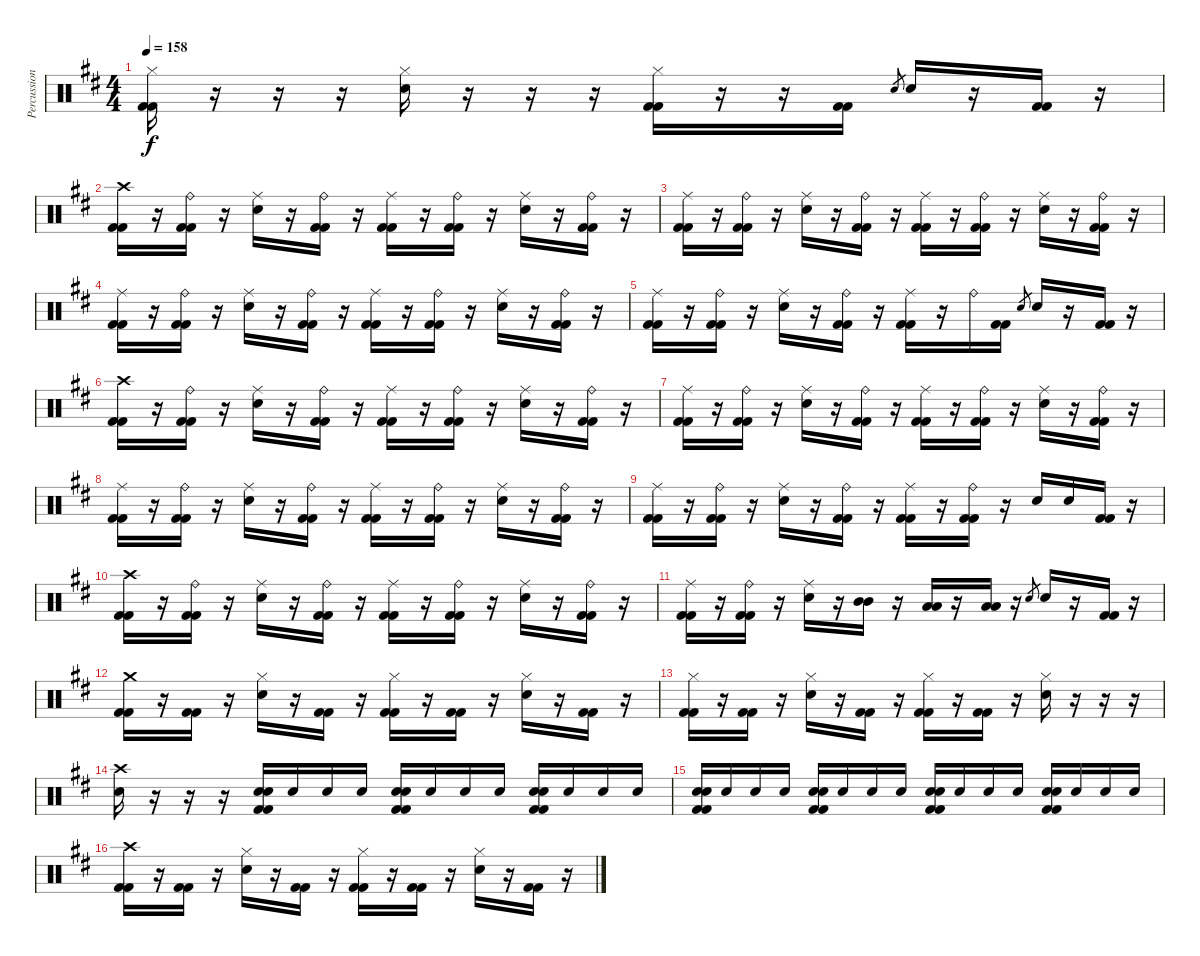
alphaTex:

\track ("Percussion" "Percussion") {instrument percussion}
\staff {score}
\articulation defaults
\ts (4 4)
\tempo 158
\clef neutral
\ks d
("Hi-Hat (closed)" "Kick (hit) 2" "Kick (hit) 2").16{dy f} r.16 r.16 r.16 ("Hi-Hat (closed)" "Electric Snare (hit)").16 r.16 r.16 r.16 ("Hi-Hat (closed)" "Kick (hit) 2" "Kick (hit) 2").16 r.16 r.16 ("Kick (hit) 2" "Kick (hit) 2").16 "Electric Snare (hit)".8{gr} "Electric Snare (hit)".16 r.16 ("Kick (hit) 2" "Kick (hit) 2").16 r.16 |
("Crash high (hit)" "Kick (hit) 2" "Kick (hit) 2").16 r.16 ("Ride (bell)" "Kick (hit) 2" "Kick (hit) 2").16 r.16 ("Ride (middle)" "Electric Snare (hit)").16 r.16 ("Ride (bell)" "Kick (hit) 2" "Kick (hit) 2").16 r.16 ("Ride (middle)" "Kick (hit) 2" "Kick (hit) 2").16 r.16 ("Ride (bell)" "Kick (hit) 2" "Kick (hit) 2").16 r.16 ("Ride (middle)" "Electric Snare (hit)").16 r.16 ("Ride (bell)" "Kick (hit) 2" "Kick (hit) 2").16 r.16 |
("Ride (middle)" "Kick (hit) 2" "Kick (hit) 2").16 r.16 ("Ride (bell)" "Kick (hit) 2" "Kick (hit) 2").16 r.16 ("Ride (middle)" "Electric Snare (hit)").16 r.16 ("Ride (bell)" "Kick (hit) 2" "Kick (hit) 2").16 r.16 ("Ride (middle)" "Kick (hit) 2" "Kick (hit) 2").16 r.16 ("Ride (bell)" "Kick (hit) 2" "Kick (hit) 2").16 r.16 ("Ride (middle)" "Electric Snare (hit)").16 r.16 ("Ride (bell)" "Kick (hit) 2" "Kick (hit) 2").16 r.16 |
("Ride (middle)" "Kick (hit) 2" "Kick (hit) 2").16 r.16 ("Ride (bell)" "Kick (hit) 2" "Kick (hit) 2").16 r.16 ("Ride (middle)" "Electric Snare (hit)").16 r.16 ("Ride (bell)" "Kick (hit) 2" "Kick (hit) 2").16 r.16 ("Ride (middle)" "Kick (hit) 2" "Kick (hit) 2").16 r.16 ("Ride (bell)" "Kick (hit) 2" "Kick (hit) 2").16 r.16 ("Ride (middle)" "Electric Snare (hit)").16 r.16 ("Ride (bell)" "Kick (hit) 2" "Kick (hit) 2").16 r.16 |
("Ride (middle)" "Kick (hit) 2" "Kick (hit) 2").16 r.16 ("Ride (bell)" "Kick (hit) 2" "Kick (hit) 2").16 r.16 ("Ride (middle)" "Electric Snare (hit)").16 r.16 ("Ride (bell)" "Kick (hit) 2" "Kick (hit) 2").16 r.16 ("Ride (middle)" "Kick (hit) 2" "Kick (hit) 2").16 r.16 "Ride (bell)".16 ("Kick (hit) 2" "Kick (hit) 2").16 "Electric Snare (hit)".8{gr} "Electric Snare (hit)".16 r.16 ("Kick (hit) 2" "Kick (hit) 2").16 r.16 |
("Crash high (hit)" "Kick (hit) 2" "Kick (hit) 2").16 r.16 ("Ride (bell)" "Kick (hit) 2" "Kick (hit) 2").16 r.16 ("Ride (middle)" "Electric Snare (hit)").16 r.16 ("Ride (bell)" "Kick (hit) 2" "Kick (hit) 2").16 r.16 ("Ride (middle)" "Kick (hit) 2" "Kick (hit) 2").16 r.16 ("Ride (bell)" "Kick (hit) 2" "Kick (hit) 2").16 r.16 ("Ride (middle)" "Electric Snare (hit)").16 r.16 ("Ride (bell)" "Kick (hit) 2" "Kick (hit) 2").16 r.16 |
("Ride (middle)" "Kick (hit) 2" "Kick (hit) 2").16 r.16 ("Ride (bell)" "Kick (hit) 2" "Kick (hit) 2").16 r.16 ("Ride (middle)" "Electric Snare (hit)").16 r.16 ("Ride (bell)" "Kick (hit) 2" "Kick (hit) 2").16 r.16 ("Ride (middle)" "Kick (hit) 2" "Kick (hit) 2").16 r.16 ("Ride (bell)" "Kick (hit) 2" "Kick (hit) 2").16 r.16 ("Ride (middle)" "Electric Snare (hit)").16 r.16 ("Ride (bell)" "Kick (hit) 2" "Kick (hit) 2").16 r.16 |
("Ride (middle)" "Kick (hit) 2" "Kick (hit) 2").16 r.16 ("Ride (bell)" "Kick (hit) 2" "Kick (hit) 2").16 r.16 ("Ride (middle)" "Electric Snare (hit)").16 r.16 ("Ride (bell)" "Kick (hit) 2" "Kick (hit) 2").16 r.16 ("Ride (middle)" "Kick (hit) 2" "Kick (hit) 2").16 r.16 ("Ride (bell)" "Kick (hit) 2" "Kick (hit) 2").16 r.16 ("Ride (middle)" "Electric Snare (hit)").16 r.16 ("Ride (bell)" "Kick (hit) 2" "Kick (hit) 2").16 r.16 |
("Ride (middle)" "Kick (hit) 2" "Kick (hit) 2").16 r.16 ("Ride (bell)" "Kick (hit) 2" "Kick (hit) 2").16 r.16 ("Ride (middle)" "Electric Snare (hit)").16 r.16 ("Ride (bell)" "Kick (hit) 2" "Kick (hit) 2").16 r.16 ("Ride (middle)" "Kick (hit) 2" "Kick (hit) 2").16 r.16 ("Ride (bell)" "Kick (hit) 2" "Kick (hit) 2").16 r.16 "Electric Snare (hit)".16 "Electric Snare (hit)".16 ("Kick (hit) 2" "Kick (hit) 2").16 r.16 |
("Crash high (hit)" "Kick (hit) 2" "Kick (hit) 2").16 r.16 ("Ride (bell)" "Kick (hit) 2" "Kick (hit) 2").16 r.16 ("Ride (middle)" "Electric Snare (hit)").16 r.16 ("Ride (bell)" "Kick (hit) 2" "Kick (hit) 2").16 r.16 ("Ride (middle)" "Kick (hit) 2" "Kick (hit) 2").16 r.16 ("Ride (bell)" "Kick (hit) 2" "Kick (hit) 2").16 r.16 ("Ride (middle)" "Electric Snare (hit)").16 r.16 ("Ride (bell)" "Kick (hit) 2" "Kick (hit) 2").16 r.16 |
("Ride (middle)" "Kick (hit) 2" "Kick (hit) 2").16 r.16 ("Ride (bell)" "Kick (hit) 2" "Kick (hit) 2").16 r.16 ("Ride (middle)" "Electric Snare (hit)").16 r.16 ("Mid Tom (hit)" "Mid Tom (hit)").16 r.16 ("Low Tom (hit)" "Low Tom (hit)").16 r.16 ("Low Floor Tom (hit)" "Low Floor Tom (hit)").16 r.16 "Electric Snare (hit)".8{gr} "Electric Snare (hit)".16 r.16 ("Kick (hit) 2" "Kick (hit) 2").16 r.16 |
("Crash medium (hit)" "Kick (hit) 2" "Kick (hit) 2").16 r.16 ("Kick (hit) 2" "Kick (hit) 2").16 r.16 ("Hi-Hat (closed)" "Electric Snare (hit)").16 r.16 ("Kick (hit) 2" "Kick (hit) 2").16 r.16 ("Hi-Hat (closed)" "Kick (hit) 2" "Kick (hit) 2").16 r.16 ("Kick (hit) 2" "Kick (hit) 2").16 r.16 ("Hi-Hat (closed)" "Electric Snare (hit)").16 r.16 ("Kick (hit) 2" "Kick (hit) 2").16 r.16 |
("Hi-Hat (closed)" "Kick (hit) 2" "Kick (hit) 2").16 r.16 ("Kick (hit) 2" "Kick (hit) 2").16 r.16 ("Hi-Hat (closed)" "Electric Snare (hit)").16 r.16 ("Kick (hit) 2" "Kick (hit) 2").16 r.16 ("Hi-Hat (closed)" "Kick (hit) 2" "Kick (hit) 2").16 r.16 ("Kick (hit) 2" "Kick (hit) 2").16 r.16 ("Hi-Hat (closed)" "Electric Snare (hit)").16 r.16 r.16 r.16 |
("Crash high (hit)" "Electric Snare (hit)").16 r.16 r.16 r.16 ("Electric Snare (hit)" "Electric Snare (hit)" "Kick (hit) 2" "Kick (hit) 2").16 "Electric Snare (hit)".16 "Electric Snare (hit)".16 "Electric Snare (hit)".16 ("Electric Snare (hit)" "Electric Snare (hit)" "Kick (hit) 2" "Kick (hit) 2").16 "Electric Snare (hit)".16 "Electric Snare (hit)".16 "Electric Snare (hit)".16 ("Electric Snare (hit)" "Electric Snare (hit)" "Kick (hit) 2" "Kick (hit) 2").16 "Electric Snare (hit)".16 "Electric Snare (hit)".16 "Electric Snare (hit)".16 |
("Electric Snare (hit)" "Electric Snare (hit)" "Kick (hit) 2" "Kick (hit) 2").16 "Electric Snare (hit)".16 "Electric Snare (hit)".16 "Electric Snare (hit)".16 ("Electric Snare (hit)" "Electric Snare (hit)" "Kick (hit) 2" "Kick (hit) 2").16 "Electric Snare (hit)".16 "Electric Snare (hit)".16 "Electric Snare (hit)".16 ("Electric Snare (hit)" "Electric Snare (hit)" "Kick (hit) 2" "Kick (hit) 2").16 "Electric Snare (hit)".16 "Electric Snare (hit)".16 "Electric Snare (hit)".16 ("Electric Snare (hit)" "Electric Snare (hit)" "Kick (hit) 2" "Kick (hit) 2").16 "Electric Snare (hit)".16 "Electric Snare (hit)".16 "Electric Snare (hit)".16 |
("Crash high (hit)" "Kick (hit) 2" "Kick (hit) 2").16 r.16 ("Kick (hit) 2" "Kick (hit) 2").16 r.16 ("Hi-Hat (closed)" "Electric Snare (hit)").16 r.16 ("Kick (hit) 2" "Kick (hit) 2").16 r.16 ("Hi-Hat (closed)" "Kick (hit) 2" "Kick (hit) 2").16 r.16 ("Kick (hit) 2" "Kick (hit) 2").16 r.16 ("Hi-Hat (closed)" "Electric Snare (hit)").16 r.16 ("Kick (hit) 2" "Kick (hit) 2").16 r.16
